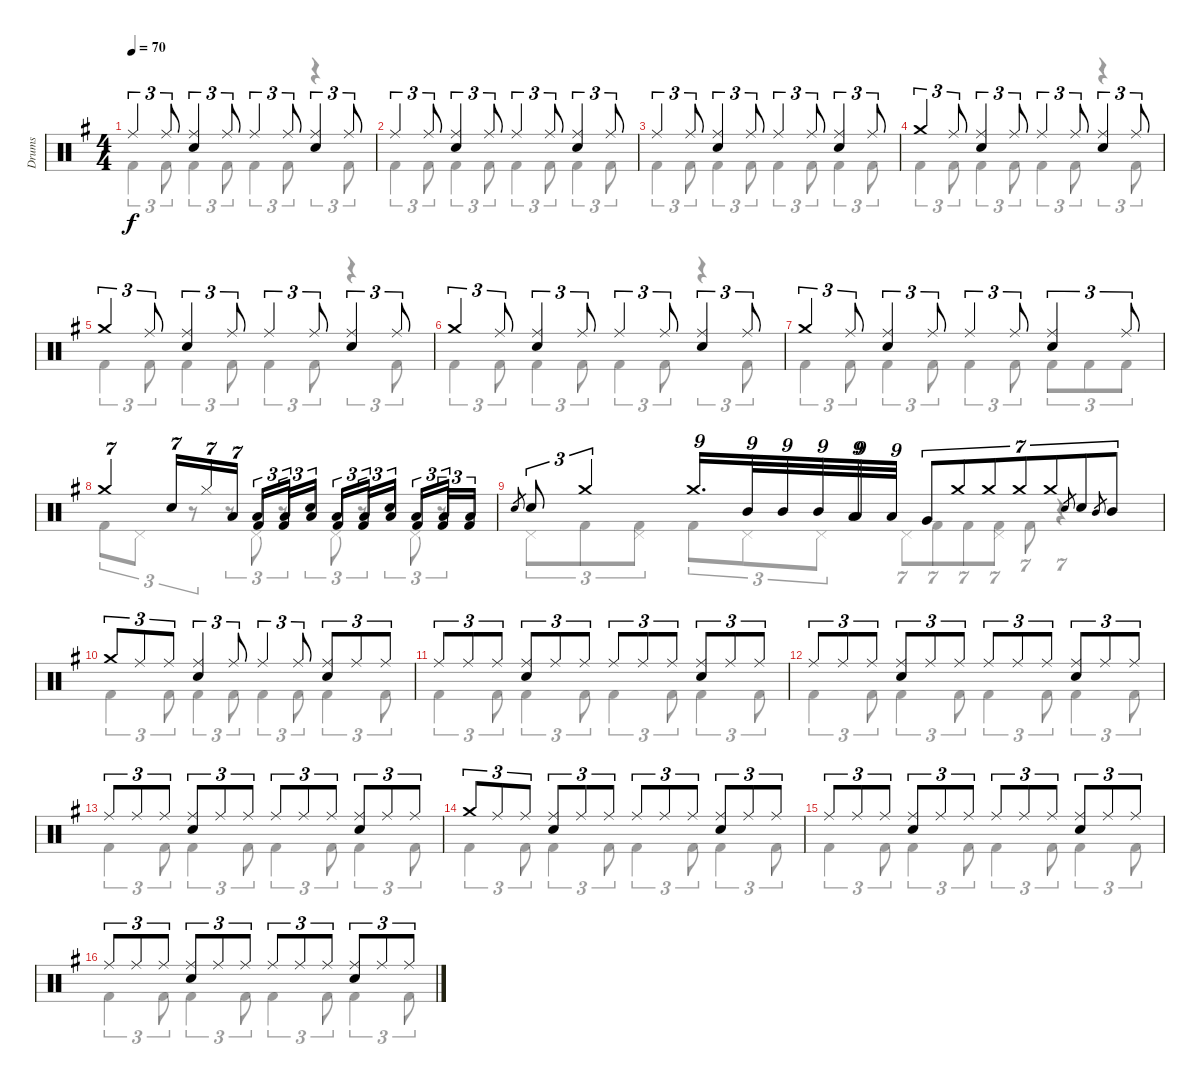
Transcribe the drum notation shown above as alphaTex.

\track ("Drums" "Drums") {instrument percussion}
\staff {score}
\articulation defaults
\voice
\ts (4 4)
\tempo 70
\clef neutral
\ks g "Ride (middle)".4{tu (3 2) dy f} "Ride (middle)".8{tu (3 2)}
("Ride (middle)" "Snare (hit) 2").4{tu (3 2)} "Ride (middle)".8{tu (3 2)} "Ride (middle)".4{tu (3 2)} "Ride (middle)".8{tu (3 2)} ("Ride (middle)" "Snare (hit) 2").4{tu (3 2)} "Ride (middle)".8{tu (3 2)} |
"Ride (middle)".4{tu (3 2)} "Ride (middle)".8{tu (3 2)} ("Ride (middle)" "Snare (hit) 2").4{tu (3 2)} "Ride (middle)".8{tu (3 2)} "Ride (middle)".4{tu (3 2)} "Ride (middle)".8{tu (3 2)} ("Ride (middle)" "Snare (hit) 2").4{tu (3 2)} "Ride (middle)".8{tu (3 2)} |
"Ride (middle)".4{tu (3 2)} "Ride (middle)".8{tu (3 2)} ("Ride (middle)" "Snare (hit) 2").4{tu (3 2)} "Ride (middle)".8{tu (3 2)} "Ride (middle)".4{tu (3 2)} "Ride (middle)".8{tu (3 2)} ("Ride (middle)" "Snare (hit) 2").4{tu (3 2)} "Ride (middle)".8{tu (3 2)} |
"Crash medium (hit)".4{tu (3 2)} "Ride (middle)".8{tu (3 2)} ("Ride (middle)" "Snare (hit) 2").4{tu (3 2)} "Ride (middle)".8{tu (3 2)} "Ride (middle)".4{tu (3 2)} "Ride (middle)".8{tu (3 2)} ("Ride (middle)" "Snare (hit) 2").4{tu (3 2)} "Ride (middle)".8{tu (3 2)} |
"Crash medium (hit)".4{tu (3 2)} "Ride (middle)".8{tu (3 2)} ("Ride (middle)" "Snare (hit) 2").4{tu (3 2)} "Ride (middle)".8{tu (3 2)} "Ride (middle)".4{tu (3 2)} "Ride (middle)".8{tu (3 2)} ("Ride (middle)" "Snare (hit) 2").4{tu (3 2)} "Ride (middle)".8{tu (3 2)} |
"Crash medium (hit)".4{tu (3 2)} "Ride (middle)".8{tu (3 2)} ("Ride (middle)" "Snare (hit) 2").4{tu (3 2)} "Ride (middle)".8{tu (3 2)} "Ride (middle)".4{tu (3 2)} "Ride (middle)".8{tu (3 2)} ("Ride (middle)" "Snare (hit) 2").4{tu (3 2)} "Ride (middle)".8{tu (3 2)} |
"Crash medium (hit)".4{tu (3 2)} "Ride (middle)".8{tu (3 2)} ("Ride (middle)" "Snare (hit) 2").4{tu (3 2)} "Ride (middle)".8{tu (3 2)} "Ride (middle)".4{tu (3 2)} "Ride (middle)".8{tu (3 2)} ("Ride (middle)" "Snare (hit) 2").4{tu (3 2)} "Ride (middle)".8{tu (3 2)} |
"Crash medium (hit)".4{tu (7 4)} "Snare (hit) 2".16{tu (7 4)} "Hi-Hat (closed)".16{tu (7 4)} "Low Tom (hit)".16{tu (7 4)} "Kick (hit) 2".16{tu (3 2)} "Low Tom (hit)".16{tu (3 2)} "Low Tom (hit)".16{tu (3 2) beam splitsecondary} "Kick (hit) 2".16{tu (3 2)} "Low Tom (hit)".16{tu (3 2)} "Snare (hit) 2".16{tu (3 2)} "Kick (hit) 2".16{tu (3 2)} "Low Tom (hit)".16{tu (3 2)} "Low Tom (hit)".16{tu (3 2) beam splitsecondary} "Kick (hit) 2".16{tu (3 2)} "Low Tom (hit)".16{tu (3 2)} "Snare (hit) 2".16{tu (3 2)} "Kick (hit) 2".16{tu (3 2)} "Low Tom (hit)".16{tu (3 2)} "Low Tom (hit)".16{tu (3 2) beam splitsecondary} "Kick (hit) 2".16{tu (3 2)} "Low Tom (hit)".16{tu (3 2)} "Kick (hit) 2".16{tu (3 2)} |
"Snare (hit) 2".8{gr} "Snare (hit) 2".8{tu (3 2)} "Crash medium (hit)".4{tu (3 2)} "Crash medium (hit)".16{d tu (9 8)} "Mid Tom (hit)".32{tu (9 8)} "Mid Tom (hit)".32{tu (9 8)} "Mid Tom (hit)".32{tu (9 8)} "Low Tom (hit)".32{tu (9 8)} "Low Tom (hit)".32{tu (9 8)} "Low Tom (hit)".32{tu (9 8)} "Very Low Tom (hit)".8{tu (7 4)} "Crash medium (hit)".8{tu (7 4)} "Crash medium (hit)".8{tu (7 4)} "Crash medium (hit)".8{tu (7 4)} "Crash medium (hit)".8{tu (7 4)} "Snare (hit) 2".8{gr} "Snare (hit) 2".8{tu (7 4)} "Mid Tom (hit)".8{gr} "Mid Tom (hit)".8{tu (7 4)} |
"Crash medium (hit)".8{tu (3 2)} "Ride (middle)".8{tu (3 2)} "Ride (middle)".8{tu (3 2)} ("Ride (middle)" "Snare (hit) 2").4{tu (3 2)} "Ride (middle)".8{tu (3 2)} "Ride (middle)".4{tu (3 2)} "Ride (middle)".8{tu (3 2)} ("Ride (middle)" "Snare (hit) 2").8{tu (3 2)} "Ride (middle)".8{tu (3 2)} "Ride (middle)".8{tu (3 2)} |
"Ride (middle)".8{tu (3 2)} "Ride (middle)".8{tu (3 2)} "Ride (middle)".8{tu (3 2)} ("Ride (middle)" "Snare (hit) 2").8{tu (3 2)} "Ride (middle)".8{tu (3 2)} "Ride (middle)".8{tu (3 2)} "Ride (middle)".8{tu (3 2)} "Ride (middle)".8{tu (3 2)} "Ride (middle)".8{tu (3 2)} ("Ride (middle)" "Snare (hit) 2").8{tu (3 2)} "Ride (middle)".8{tu (3 2)} "Ride (middle)".8{tu (3 2)} |
"Ride (middle)".8{tu (3 2)} "Ride (middle)".8{tu (3 2)} "Ride (middle)".8{tu (3 2)} ("Ride (middle)" "Snare (hit) 2").8{tu (3 2)} "Ride (middle)".8{tu (3 2)} "Ride (middle)".8{tu (3 2)} "Ride (middle)".8{tu (3 2)} "Ride (middle)".8{tu (3 2)} "Ride (middle)".8{tu (3 2)} ("Ride (middle)" "Snare (hit) 2").8{tu (3 2)} "Ride (middle)".8{tu (3 2)} "Ride (middle)".8{tu (3 2)} |
"Ride (middle)".8{tu (3 2)} "Ride (middle)".8{tu (3 2)} "Ride (middle)".8{tu (3 2)} ("Ride (middle)" "Snare (hit) 2").8{tu (3 2)} "Ride (middle)".8{tu (3 2)} "Ride (middle)".8{tu (3 2)} "Ride (middle)".8{tu (3 2)} "Ride (middle)".8{tu (3 2)} "Ride (middle)".8{tu (3 2)} ("Ride (middle)" "Snare (hit) 2").8{tu (3 2)} "Ride (middle)".8{tu (3 2)} "Ride (middle)".8{tu (3 2)} |
"Crash medium (hit)".8{tu (3 2)} "Ride (middle)".8{tu (3 2)} "Ride (middle)".8{tu (3 2)} ("Ride (middle)" "Snare (hit) 2").8{tu (3 2)} "Ride (middle)".8{tu (3 2)} "Ride (middle)".8{tu (3 2)} "Ride (middle)".8{tu (3 2)} "Ride (middle)".8{tu (3 2)} "Ride (middle)".8{tu (3 2)} ("Ride (middle)" "Snare (hit) 2").8{tu (3 2)} "Ride (middle)".8{tu (3 2)} "Ride (middle)".8{tu (3 2)} |
"Ride (middle)".8{tu (3 2)} "Ride (middle)".8{tu (3 2)} "Ride (middle)".8{tu (3 2)} ("Ride (middle)" "Snare (hit) 2").8{tu (3 2)} "Ride (middle)".8{tu (3 2)} "Ride (middle)".8{tu (3 2)} "Ride (middle)".8{tu (3 2)} "Ride (middle)".8{tu (3 2)} "Ride (middle)".8{tu (3 2)} ("Ride (middle)" "Snare (hit) 2").8{tu (3 2)} "Ride (middle)".8{tu (3 2)} "Ride (middle)".8{tu (3 2)} |
"Ride (middle)".8{tu (3 2)} "Ride (middle)".8{tu (3 2)} "Ride (middle)".8{tu (3 2)} ("Ride (middle)" "Snare (hit) 2").8{tu (3 2)} "Ride (middle)".8{tu (3 2)} "Ride (middle)".8{tu (3 2)} "Ride (middle)".8{tu (3 2)} "Ride (middle)".8{tu (3 2)} "Ride (middle)".8{tu (3 2)} ("Ride (middle)" "Snare (hit) 2").8{tu (3 2)} "Ride (middle)".8{tu (3 2)} "Ride (middle)".8{tu (3 2)}
\voice
\clef neutral
\ottava regular
\simile none
\ks g "Kick (hit) 2".4{tu (3 2) dy f} "Kick (hit) 2".8{tu (3 2)} "Kick (hit) 2".4{tu (3 2)} "Kick (hit) 2".8{tu (3 2)} "Kick (hit) 2".4{tu (3 2)} "Kick (hit) 2".8{tu (3 2)}
r.4{tu (3 2)} "Kick (hit) 2".8{tu (3 2)} |
"Kick (hit) 2".4{tu (3 2)} "Kick (hit) 2".8{tu (3 2)} "Kick (hit) 2".4{tu (3 2)} "Kick (hit) 2".8{tu (3 2)} "Kick (hit) 2".4{tu (3 2)} "Kick (hit) 2".8{tu (3 2)} "Kick (hit) 2".4{tu (3 2)} "Kick (hit) 2".8{tu (3 2)} |
"Kick (hit) 2".4{tu (3 2)} "Kick (hit) 2".8{tu (3 2)} "Kick (hit) 2".4{tu (3 2)} "Kick (hit) 2".8{tu (3 2)} "Kick (hit) 2".4{tu (3 2)} "Kick (hit) 2".8{tu (3 2)} "Kick (hit) 2".4{tu (3 2)} "Kick (hit) 2".8{tu (3 2)} |
"Kick (hit) 2".4{tu (3 2)} "Kick (hit) 2".8{tu (3 2)} "Kick (hit) 2".4{tu (3 2)} "Kick (hit) 2".8{tu (3 2)} "Kick (hit) 2".4{tu (3 2)} "Kick (hit) 2".8{tu (3 2)} r.4{tu (3 2)} "Kick (hit) 2".8{tu (3 2)} |
"Kick (hit) 2".4{tu (3 2)} "Kick (hit) 2".8{tu (3 2)} "Kick (hit) 2".4{tu (3 2)} "Kick (hit) 2".8{tu (3 2)} "Kick (hit) 2".4{tu (3 2)} "Kick (hit) 2".8{tu (3 2)} r.4{tu (3 2)} "Kick (hit) 2".8{tu (3 2)} |
"Kick (hit) 2".4{tu (3 2)} "Kick (hit) 2".8{tu (3 2)} "Kick (hit) 2".4{tu (3 2)} "Kick (hit) 2".8{tu (3 2)} "Kick (hit) 2".4{tu (3 2)} "Kick (hit) 2".8{tu (3 2)} r.4{tu (3 2)} "Kick (hit) 2".8{tu (3 2)} |
"Kick (hit) 2".4{tu (3 2)} "Kick (hit) 2".8{tu (3 2)} "Kick (hit) 2".4{tu (3 2)} "Kick (hit) 2".8{tu (3 2)} "Kick (hit) 2".4{tu (3 2)} "Kick (hit) 2".8{tu (3 2)} "Kick (hit) 2".8{tu (3 2)} "Kick (hit) 2".8{tu (3 2)} "Kick (hit) 2".8{tu (3 2)} |
"Kick (hit) 2".8{tu (3 2)} "Pedal Hi-Hat (hit)".8{tu (3 2)} r.8{tu (3 2)} r.8{tu (3 2)} "Pedal Hi-Hat (hit)".8{tu (3 2)} r.8{tu (3 2)} r.8{tu (3 2)} "Pedal Hi-Hat (hit)".8{tu (3 2)} r.8{tu (3 2)} r.8{tu (3 2)} "Pedal Hi-Hat (hit)".8{tu (3 2)} r.8{tu (3 2)} |
"Pedal Hi-Hat (hit)".8{tu (3 2)} "Kick (hit) 2".8{tu (3 2)} ("Pedal Hi-Hat (hit)" "Kick (hit) 2").8{tu (3 2)} "Kick (hit) 2".8{tu (3 2)} "Pedal Hi-Hat (hit)".8{tu (3 2)} "Pedal Hi-Hat (hit)".8{tu (3 2)} "Pedal Hi-Hat (hit)".8{tu (7 4)} "Kick (hit) 2".8{tu (7 4)} "Kick (hit) 2".8{tu (7 4)} ("Pedal Hi-Hat (hit)" "Kick (hit) 2").8{tu (7 4)} "Kick (hit) 2".8{tu (7 4)} r.4{tu (7 4)} |
"Kick (hit) 2".4{tu (3 2)} "Kick (hit) 2".8{tu (3 2)} "Kick (hit) 2".4{tu (3 2)} "Kick (hit) 2".8{tu (3 2)} "Kick (hit) 2".4{tu (3 2)} "Kick (hit) 2".8{tu (3 2)} "Kick (hit) 2".4{tu (3 2)} "Kick (hit) 2".8{tu (3 2)} |
"Kick (hit) 2".4{tu (3 2)} "Kick (hit) 2".8{tu (3 2)} "Kick (hit) 2".4{tu (3 2)} "Kick (hit) 2".8{tu (3 2)} "Kick (hit) 2".4{tu (3 2)} "Kick (hit) 2".8{tu (3 2)} "Kick (hit) 2".4{tu (3 2)} "Kick (hit) 2".8{tu (3 2)} |
"Kick (hit) 2".4{tu (3 2)} "Kick (hit) 2".8{tu (3 2)} "Kick (hit) 2".4{tu (3 2)} "Kick (hit) 2".8{tu (3 2)} "Kick (hit) 2".4{tu (3 2)} "Kick (hit) 2".8{tu (3 2)} "Kick (hit) 2".4{tu (3 2)} "Kick (hit) 2".8{tu (3 2)} |
"Kick (hit) 2".4{tu (3 2)} "Kick (hit) 2".8{tu (3 2)} "Kick (hit) 2".4{tu (3 2)} "Kick (hit) 2".8{tu (3 2)} "Kick (hit) 2".4{tu (3 2)} "Kick (hit) 2".8{tu (3 2)} "Kick (hit) 2".4{tu (3 2)} "Kick (hit) 2".8{tu (3 2)} |
"Kick (hit) 2".4{tu (3 2)} "Kick (hit) 2".8{tu (3 2)} "Kick (hit) 2".4{tu (3 2)} "Kick (hit) 2".8{tu (3 2)} "Kick (hit) 2".4{tu (3 2)} "Kick (hit) 2".8{tu (3 2)} "Kick (hit) 2".4{tu (3 2)} "Kick (hit) 2".8{tu (3 2)} |
"Kick (hit) 2".4{tu (3 2)} "Kick (hit) 2".8{tu (3 2)} "Kick (hit) 2".4{tu (3 2)} "Kick (hit) 2".8{tu (3 2)} "Kick (hit) 2".4{tu (3 2)} "Kick (hit) 2".8{tu (3 2)} "Kick (hit) 2".4{tu (3 2)} "Kick (hit) 2".8{tu (3 2)} |
"Kick (hit) 2".4{tu (3 2)} "Kick (hit) 2".8{tu (3 2)} "Kick (hit) 2".4{tu (3 2)} "Kick (hit) 2".8{tu (3 2)} "Kick (hit) 2".4{tu (3 2)} "Kick (hit) 2".8{tu (3 2)} "Kick (hit) 2".4{tu (3 2)} "Kick (hit) 2".8{tu (3 2)}
